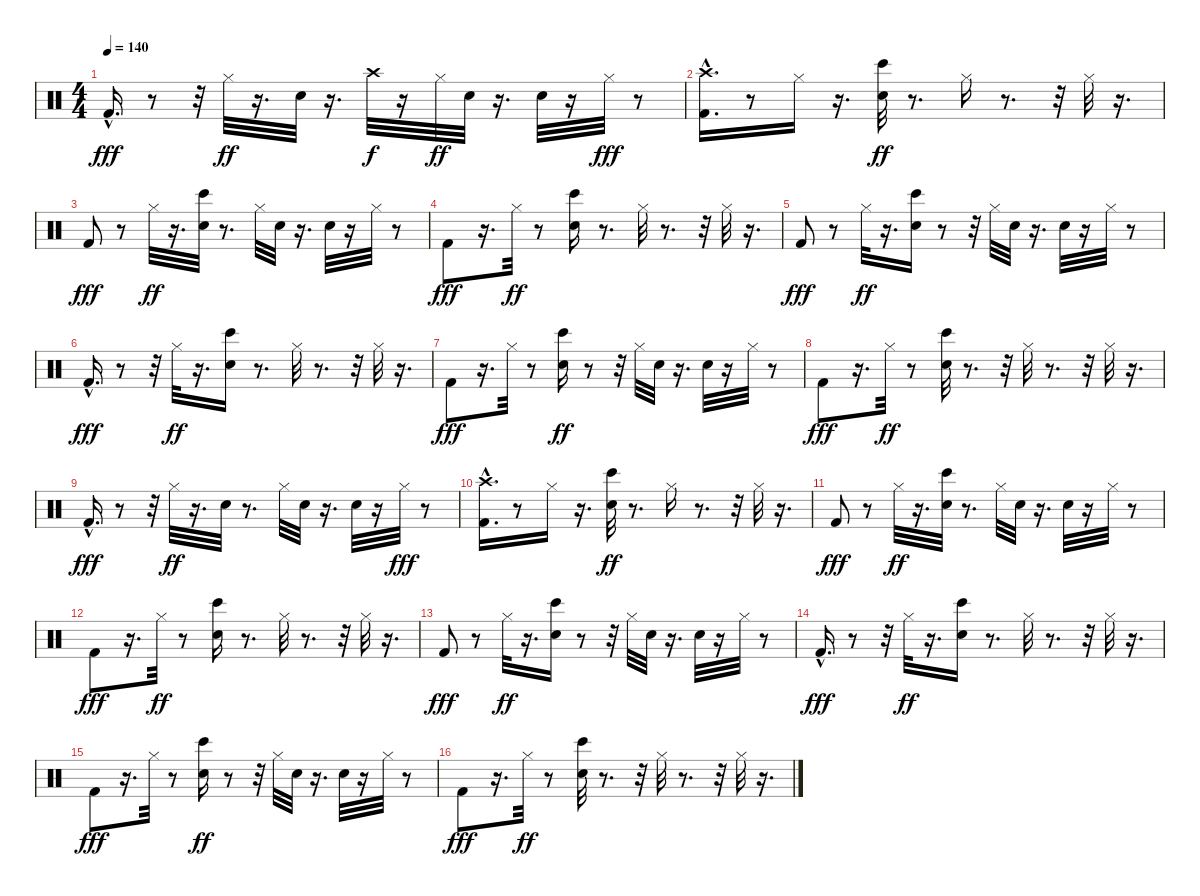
\track "" {instrument percussion}
\staff {score}
\articulation defaults
\ts (4 4)
\tempo 140
\clef neutral
\ks c "Kick (hit) 2"{hac}.16{d dy fff}
r.8 r.32 "Hi-Hat (closed)".32{dy ff} r.16{d} "Electric Snare (hit)".32 r.16{d} "Crash high (hit)".32{dy f} r.16 "Hi-Hat (closed)".32{dy ff} "Electric Snare (hit)".32 r.16{d} "Electric Snare (hit)".32 r.16 "Hi-Hat (closed)".32{dy fff} r.8 |
("Kick (hit) 2"{hac} "Crash high (hit)").16{d} r.8 "Hi-Hat (closed)".16 r.16{d} ("Bongo High (hit)" "Electric Snare (hit)").32{dy ff} r.8{d} "Hi-Hat (closed)".16 r.8{d} r.32 "Hi-Hat (closed)".32 r.16{d} |
"Kick (hit) 2".8{dy fff} r.8 "Hi-Hat (closed)".32{dy ff} r.16{d} ("Bongo High (hit)" "Electric Snare (hit)").32 r.8{d} "Hi-Hat (closed)".32 "Electric Snare (hit)".32 r.16{d} "Electric Snare (hit)".32 r.16 "Hi-Hat (closed)".32 r.8 |
"Kick (hit) 2".8{dy fff} r.16{d} "Hi-Hat (closed)".32{dy ff} r.8 ("Bongo High (hit)" "Electric Snare (hit)").16 r.8{d} "Hi-Hat (closed)".32 r.8{d} r.32 "Hi-Hat (closed)".32 r.16{d} |
"Kick (hit) 2".8{dy fff} r.8 "Hi-Hat (closed)".32{dy ff} r.16{d} ("Bongo High (hit)" "Electric Snare (hit)").16 r.8 r.32 "Hi-Hat (closed)".32 "Electric Snare (hit)".32 r.16{d} "Electric Snare (hit)".32 r.16 "Hi-Hat (closed)".32 r.8 |
"Kick (hit) 2"{hac}.16{d dy fff} r.8 r.32 "Hi-Hat (closed)".32{dy ff} r.16{d} ("Bongo High (hit)" "Electric Snare (hit)").16 r.8{d} "Hi-Hat (closed)".32 r.8{d} r.32 "Hi-Hat (closed)".32 r.16{d} |
"Kick (hit) 2".8{dy fff} r.16{d} "Hi-Hat (closed)".32 r.8 ("Electric Snare (hit)" "Bongo High (hit)").16{dy ff} r.8 r.32 "Hi-Hat (closed)".32 "Electric Snare (hit)".32 r.16{d} "Electric Snare (hit)".32 r.16 "Hi-Hat (closed)".32 r.8 |
"Kick (hit) 2".8{dy fff} r.16{d} "Hi-Hat (closed)".32{dy ff} r.8 ("Bongo High (hit)" "Electric Snare (hit)").32 r.8{d} r.32 "Hi-Hat (closed)".32 r.8{d} r.32 "Hi-Hat (closed)".32 r.16{d} |
"Kick (hit) 2"{hac}.16{d dy fff} r.8 r.32 "Hi-Hat (closed)".32{dy ff} r.16{d} "Electric Snare (hit)".32 r.8{d} "Hi-Hat (closed)".32 "Electric Snare (hit)".32 r.16{d} "Electric Snare (hit)".32 r.16 "Hi-Hat (closed)".32{dy fff} r.8 |
("Kick (hit) 2"{hac} "Crash high (hit)").16{d} r.8 "Hi-Hat (closed)".16 r.16{d} ("Bongo High (hit)" "Electric Snare (hit)").32{dy ff} r.8{d} "Hi-Hat (closed)".16 r.8{d} r.32 "Hi-Hat (closed)".32 r.16{d} |
"Kick (hit) 2".8{dy fff} r.8 "Hi-Hat (closed)".32{dy ff} r.16{d} ("Bongo High (hit)" "Electric Snare (hit)").32 r.8{d} "Hi-Hat (closed)".32 "Electric Snare (hit)".32 r.16{d} "Electric Snare (hit)".32 r.16 "Hi-Hat (closed)".32 r.8 |
"Kick (hit) 2".8{dy fff} r.16{d} "Hi-Hat (closed)".32{dy ff} r.8 ("Bongo High (hit)" "Electric Snare (hit)").16 r.8{d} "Hi-Hat (closed)".32 r.8{d} r.32 "Hi-Hat (closed)".32 r.16{d} |
"Kick (hit) 2".8{dy fff} r.8 "Hi-Hat (closed)".32{dy ff} r.16{d} ("Bongo High (hit)" "Electric Snare (hit)").16 r.8 r.32 "Hi-Hat (closed)".32 "Electric Snare (hit)".32 r.16{d} "Electric Snare (hit)".32 r.16 "Hi-Hat (closed)".32 r.8 |
"Kick (hit) 2"{hac}.16{d dy fff} r.8 r.32 "Hi-Hat (closed)".32{dy ff} r.16{d} ("Bongo High (hit)" "Electric Snare (hit)").16 r.8{d} "Hi-Hat (closed)".32 r.8{d} r.32 "Hi-Hat (closed)".32 r.16{d} |
"Kick (hit) 2".8{dy fff} r.16{d} "Hi-Hat (closed)".32 r.8 ("Electric Snare (hit)" "Bongo High (hit)").16{dy ff} r.8 r.32 "Hi-Hat (closed)".32 "Electric Snare (hit)".32 r.16{d} "Electric Snare (hit)".32 r.16 "Hi-Hat (closed)".32 r.8 |
"Kick (hit) 2".8{dy fff} r.16{d} "Hi-Hat (closed)".32{dy ff} r.8 ("Bongo High (hit)" "Electric Snare (hit)").32 r.8{d} r.32 "Hi-Hat (closed)".32 r.8{d} r.32 "Hi-Hat (closed)".32 r.16{d}
